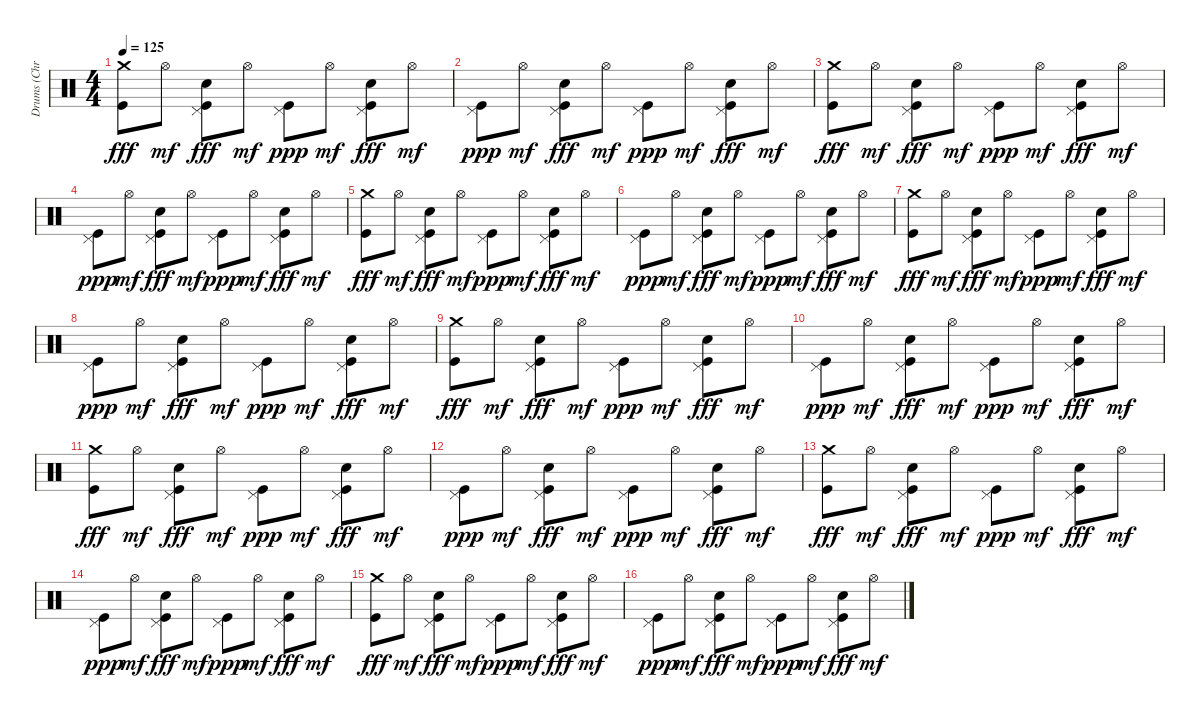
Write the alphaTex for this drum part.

\track ("Drums (Christoph)" "Drums (Chr") {instrument percussion}
\staff {score}
\articulation defaults
\ts (4 4)
\tempo 125
\clef neutral
\ks c
("Kick (hit)" "Crash medium (hit)").8{dy fff} "Hi-Hat (open)".8{dy mf} ("Kick (hit)" "Pedal Hi-Hat (hit)" "Electric Snare (hit)").8{dy fff} "Hi-Hat (open)".8{dy mf} ("Kick (hit)" "Pedal Hi-Hat (hit)").8{dy ppp} "Hi-Hat (open)".8{dy mf} ("Kick (hit)" "Pedal Hi-Hat (hit)" "Electric Snare (hit)").8{dy fff} "Hi-Hat (open)".8{dy mf} |
("Kick (hit)" "Pedal Hi-Hat (hit)").8{dy ppp} "Hi-Hat (open)".8{dy mf} ("Kick (hit)" "Pedal Hi-Hat (hit)" "Electric Snare (hit)").8{dy fff} "Hi-Hat (open)".8{dy mf} ("Kick (hit)" "Pedal Hi-Hat (hit)").8{dy ppp} "Hi-Hat (open)".8{dy mf} ("Kick (hit)" "Pedal Hi-Hat (hit)" "Electric Snare (hit)").8{dy fff} "Hi-Hat (open)".8{dy mf} |
("Kick (hit)" "Crash medium (hit)").8{dy fff} "Hi-Hat (open)".8{dy mf} ("Kick (hit)" "Pedal Hi-Hat (hit)" "Electric Snare (hit)").8{dy fff} "Hi-Hat (open)".8{dy mf} ("Kick (hit)" "Pedal Hi-Hat (hit)").8{dy ppp} "Hi-Hat (open)".8{dy mf} ("Kick (hit)" "Pedal Hi-Hat (hit)" "Electric Snare (hit)").8{dy fff} "Hi-Hat (open)".8{dy mf} |
("Kick (hit)" "Pedal Hi-Hat (hit)").8{dy ppp} "Hi-Hat (open)".8{dy mf} ("Kick (hit)" "Pedal Hi-Hat (hit)" "Electric Snare (hit)").8{dy fff} "Hi-Hat (open)".8{dy mf} ("Kick (hit)" "Pedal Hi-Hat (hit)").8{dy ppp} "Hi-Hat (open)".8{dy mf} ("Kick (hit)" "Pedal Hi-Hat (hit)" "Electric Snare (hit)").8{dy fff} "Hi-Hat (open)".8{dy mf} |
("Kick (hit)" "Crash medium (hit)").8{dy fff} "Hi-Hat (open)".8{dy mf} ("Kick (hit)" "Pedal Hi-Hat (hit)" "Electric Snare (hit)").8{dy fff} "Hi-Hat (open)".8{dy mf} ("Kick (hit)" "Pedal Hi-Hat (hit)").8{dy ppp} "Hi-Hat (open)".8{dy mf} ("Kick (hit)" "Pedal Hi-Hat (hit)" "Electric Snare (hit)").8{dy fff} "Hi-Hat (open)".8{dy mf} |
("Kick (hit)" "Pedal Hi-Hat (hit)").8{dy ppp} "Hi-Hat (open)".8{dy mf} ("Kick (hit)" "Pedal Hi-Hat (hit)" "Electric Snare (hit)").8{dy fff} "Hi-Hat (open)".8{dy mf} ("Kick (hit)" "Pedal Hi-Hat (hit)").8{dy ppp} "Hi-Hat (open)".8{dy mf} ("Kick (hit)" "Pedal Hi-Hat (hit)" "Electric Snare (hit)").8{dy fff} "Hi-Hat (open)".8{dy mf} |
("Kick (hit)" "Crash medium (hit)").8{dy fff} "Hi-Hat (open)".8{dy mf} ("Kick (hit)" "Pedal Hi-Hat (hit)" "Electric Snare (hit)").8{dy fff} "Hi-Hat (open)".8{dy mf} ("Kick (hit)" "Pedal Hi-Hat (hit)").8{dy ppp} "Hi-Hat (open)".8{dy mf} ("Kick (hit)" "Pedal Hi-Hat (hit)" "Electric Snare (hit)").8{dy fff} "Hi-Hat (open)".8{dy mf} |
("Kick (hit)" "Pedal Hi-Hat (hit)").8{dy ppp} "Hi-Hat (open)".8{dy mf} ("Kick (hit)" "Pedal Hi-Hat (hit)" "Electric Snare (hit)").8{dy fff} "Hi-Hat (open)".8{dy mf} ("Kick (hit)" "Pedal Hi-Hat (hit)").8{dy ppp} "Hi-Hat (open)".8{dy mf} ("Kick (hit)" "Pedal Hi-Hat (hit)" "Electric Snare (hit)").8{dy fff} "Hi-Hat (open)".8{dy mf} |
("Kick (hit)" "Crash medium (hit)").8{dy fff} "Hi-Hat (open)".8{dy mf} ("Kick (hit)" "Pedal Hi-Hat (hit)" "Electric Snare (hit)").8{dy fff} "Hi-Hat (open)".8{dy mf} ("Kick (hit)" "Pedal Hi-Hat (hit)").8{dy ppp} "Hi-Hat (open)".8{dy mf} ("Kick (hit)" "Pedal Hi-Hat (hit)" "Electric Snare (hit)").8{dy fff} "Hi-Hat (open)".8{dy mf} |
("Kick (hit)" "Pedal Hi-Hat (hit)").8{dy ppp} "Hi-Hat (open)".8{dy mf} ("Kick (hit)" "Pedal Hi-Hat (hit)" "Electric Snare (hit)").8{dy fff} "Hi-Hat (open)".8{dy mf} ("Kick (hit)" "Pedal Hi-Hat (hit)").8{dy ppp} "Hi-Hat (open)".8{dy mf} ("Kick (hit)" "Pedal Hi-Hat (hit)" "Electric Snare (hit)").8{dy fff} "Hi-Hat (open)".8{dy mf} |
("Kick (hit)" "Crash medium (hit)").8{dy fff} "Hi-Hat (open)".8{dy mf} ("Kick (hit)" "Pedal Hi-Hat (hit)" "Electric Snare (hit)").8{dy fff} "Hi-Hat (open)".8{dy mf} ("Kick (hit)" "Pedal Hi-Hat (hit)").8{dy ppp} "Hi-Hat (open)".8{dy mf} ("Kick (hit)" "Pedal Hi-Hat (hit)" "Electric Snare (hit)").8{dy fff} "Hi-Hat (open)".8{dy mf} |
("Kick (hit)" "Pedal Hi-Hat (hit)").8{dy ppp} "Hi-Hat (open)".8{dy mf} ("Kick (hit)" "Pedal Hi-Hat (hit)" "Electric Snare (hit)").8{dy fff} "Hi-Hat (open)".8{dy mf} ("Kick (hit)" "Pedal Hi-Hat (hit)").8{dy ppp} "Hi-Hat (open)".8{dy mf} ("Kick (hit)" "Pedal Hi-Hat (hit)" "Electric Snare (hit)").8{dy fff} "Hi-Hat (open)".8{dy mf} |
("Kick (hit)" "Crash medium (hit)").8{dy fff} "Hi-Hat (open)".8{dy mf} ("Kick (hit)" "Pedal Hi-Hat (hit)" "Electric Snare (hit)").8{dy fff} "Hi-Hat (open)".8{dy mf} ("Kick (hit)" "Pedal Hi-Hat (hit)").8{dy ppp} "Hi-Hat (open)".8{dy mf} ("Kick (hit)" "Pedal Hi-Hat (hit)" "Electric Snare (hit)").8{dy fff} "Hi-Hat (open)".8{dy mf} |
("Kick (hit)" "Pedal Hi-Hat (hit)").8{dy ppp} "Hi-Hat (open)".8{dy mf} ("Kick (hit)" "Pedal Hi-Hat (hit)" "Electric Snare (hit)").8{dy fff} "Hi-Hat (open)".8{dy mf} ("Kick (hit)" "Pedal Hi-Hat (hit)").8{dy ppp} "Hi-Hat (open)".8{dy mf} ("Kick (hit)" "Pedal Hi-Hat (hit)" "Electric Snare (hit)").8{dy fff} "Hi-Hat (open)".8{dy mf} |
("Kick (hit)" "Crash medium (hit)").8{dy fff} "Hi-Hat (open)".8{dy mf} ("Kick (hit)" "Pedal Hi-Hat (hit)" "Electric Snare (hit)").8{dy fff} "Hi-Hat (open)".8{dy mf} ("Kick (hit)" "Pedal Hi-Hat (hit)").8{dy ppp} "Hi-Hat (open)".8{dy mf} ("Kick (hit)" "Pedal Hi-Hat (hit)" "Electric Snare (hit)").8{dy fff} "Hi-Hat (open)".8{dy mf} |
("Kick (hit)" "Pedal Hi-Hat (hit)").8{dy ppp} "Hi-Hat (open)".8{dy mf} ("Kick (hit)" "Pedal Hi-Hat (hit)" "Electric Snare (hit)").8{dy fff} "Hi-Hat (open)".8{dy mf} ("Kick (hit)" "Pedal Hi-Hat (hit)").8{dy ppp} "Hi-Hat (open)".8{dy mf} ("Kick (hit)" "Pedal Hi-Hat (hit)" "Electric Snare (hit)").8{dy fff} "Hi-Hat (open)".8{dy mf}
